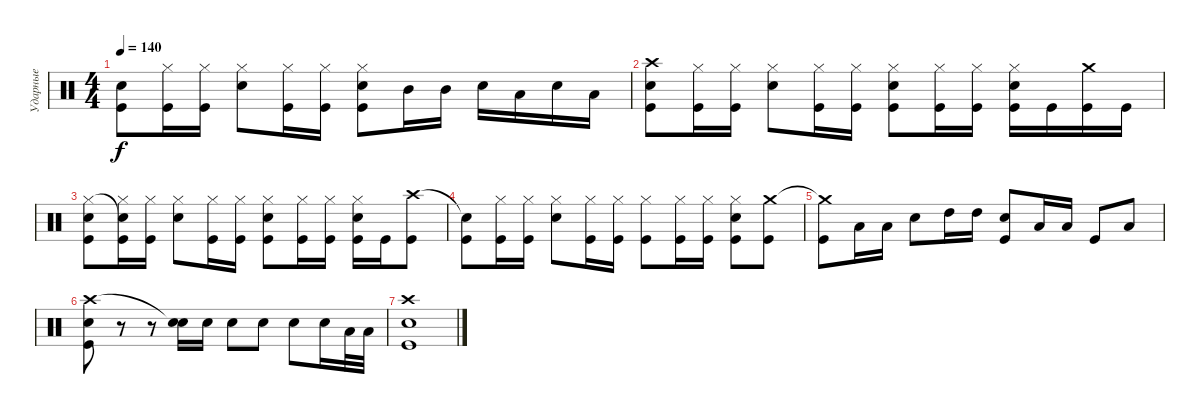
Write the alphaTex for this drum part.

\track ("Ударные" "Ударные") {instrument percussion}
\staff {score}
\articulation defaults
\ts (4 4)
\tempo 140
\clef neutral
\ks c
("Electric Snare (hit)" "Kick (hit)").8{dy f} ("Hi-Hat (closed)" "Kick (hit)").16 ("Hi-Hat (closed)" "Kick (hit)").16 ("Hi-Hat (closed)" "Electric Snare (hit)").8 ("Hi-Hat (closed)" "Kick (hit)").16 ("Hi-Hat (closed)" "Kick (hit)").16 ("Hi-Hat (closed)" "Electric Snare (hit)" "Kick (hit)").8 "Mid Tom (hit)".16 "Mid Tom (hit)".16 "Electric Snare (hit)".16 "Low Tom (hit)".16 "Electric Snare (hit)".16 "Low Tom (hit)".16 |
("Crash high (hit)" "Electric Snare (hit)" "Kick (hit)").8 ("Hi-Hat (closed)" "Kick (hit)").16 ("Hi-Hat (closed)" "Kick (hit)").16 ("Hi-Hat (closed)" "Electric Snare (hit)").8 ("Hi-Hat (closed)" "Kick (hit)").16 ("Hi-Hat (closed)" "Kick (hit)").16 ("Hi-Hat (closed)" "Electric Snare (hit)" "Kick (hit)").8 ("Hi-Hat (closed)" "Kick (hit)").16 ("Hi-Hat (closed)" "Kick (hit)").16 ("Hi-Hat (closed)" "Electric Snare (hit)" "Kick (hit)").16 "Kick (hit)".16 ("Crash medium (hit)" "Kick (hit)").16 "Kick (hit)".16 |
("Hi-Hat (closed)" "Electric Snare (hit)" "Kick (hit)").8 ("Snare (hit)"{t} "Hi-Hat (closed)" "Kick (hit)").16 ("Hi-Hat (closed)" "Kick (hit)").16 ("Hi-Hat (closed)" "Electric Snare (hit)").8 ("Hi-Hat (closed)" "Kick (hit)").16 ("Hi-Hat (closed)" "Kick (hit)").16 ("Hi-Hat (closed)" "Electric Snare (hit)" "Kick (hit)").8 ("Hi-Hat (closed)" "Kick (hit)").16 ("Hi-Hat (closed)" "Kick (hit)").16 ("Hi-Hat (closed)" "Electric Snare (hit)" "Kick (hit)").16 "Kick (hit)".16 ("Crash high (hit)" "Kick (hit)").8 |
("Snare (hit)"{t} "Kick (hit)").8 ("Hi-Hat (closed)" "Kick (hit)").16 ("Hi-Hat (closed)" "Kick (hit)").16 ("Hi-Hat (closed)" "Electric Snare (hit)").8 ("Hi-Hat (closed)" "Kick (hit)").16 ("Hi-Hat (closed)" "Kick (hit)").16 ("Hi-Hat (closed)" "Kick (hit)").8 ("Hi-Hat (closed)" "Kick (hit)").16 ("Hi-Hat (closed)" "Kick (hit)").16 ("Hi-Hat (closed)" "Electric Snare (hit)" "Kick (hit)").8 ("Crash medium (hit)" "Kick (hit)").8 |
("Crash medium (hit)"{t} "Kick (hit)").8 "Low Tom (hit)".16 "Low Tom (hit)".16 "Electric Snare (hit)".8 "High Tom (hit)".16 "High Tom (hit)".16 ("Electric Snare (hit)" "Kick (hit)").8 "Low Tom (hit)".16 "Low Tom (hit)".16 "Kick (hit)".8 "Low Tom (hit)".8 |
("Crash high (hit)" "Electric Snare (hit)" "Kick (hit)").8 r.8 r.8 ("Snare (hit)"{t} "Electric Snare (hit)").16 "Electric Snare (hit)".16 "Electric Snare (hit)".8 "Electric Snare (hit)".8 "Electric Snare (hit)".8 "Electric Snare (hit)".16 "Low Tom (hit)".32 "Low Tom (hit)".32 |
("Crash high (hit)" "Electric Snare (hit)" "Kick (hit)").1
